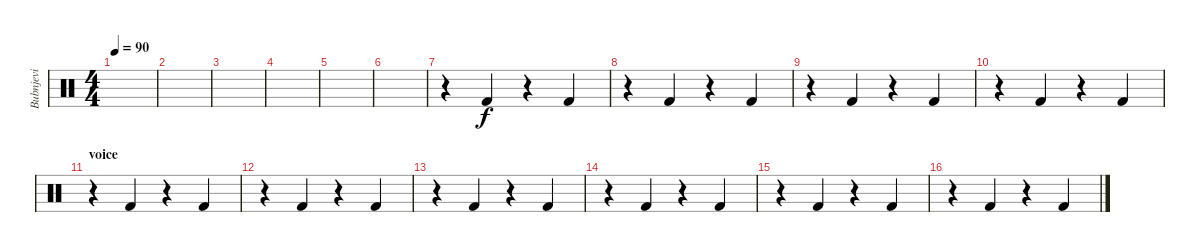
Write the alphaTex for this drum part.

\track ("Bubnjevi" "Bubnjevi") {instrument percussion}
\staff {score}
\articulation defaults
\ts (4 4)
\tempo 90
\clef neutral
\ks c
|
|
|
|
|
|
r.4 "Kick (hit) 2".4 r.4 "Kick (hit) 2".4 |
r.4 "Kick (hit) 2".4 r.4 "Kick (hit) 2".4 |
r.4 "Kick (hit) 2".4 r.4 "Kick (hit) 2".4 |
r.4 "Kick (hit) 2".4 r.4 "Kick (hit) 2".4 |
\section ("" "voice")
r.4 "Kick (hit) 2".4 r.4 "Kick (hit) 2".4 |
r.4 "Kick (hit) 2".4 r.4 "Kick (hit) 2".4 |
r.4 "Kick (hit) 2".4 r.4 "Kick (hit) 2".4 |
r.4 "Kick (hit) 2".4 r.4 "Kick (hit) 2".4 |
r.4 "Kick (hit) 2".4 r.4 "Kick (hit) 2".4 |
r.4 "Kick (hit) 2".4 r.4 "Kick (hit) 2".4
